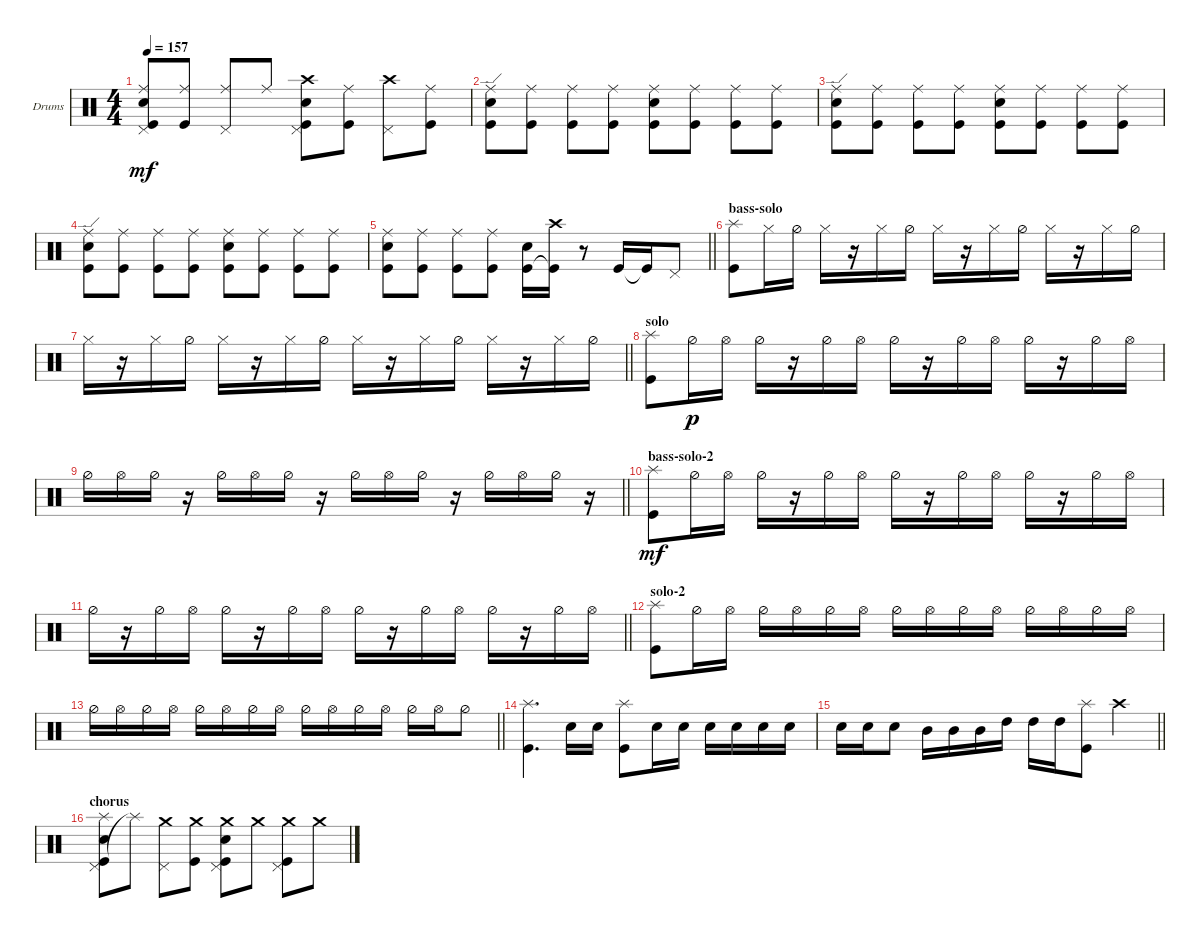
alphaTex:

\bracketExtendMode groupsimilarinstruments
\firstSystemTrackNameOrientation horizontal
\otherSystemsTrackNameOrientation horizontal
\track ("Drumkit" "Drums") {instrument percussion}
\staff {score}
\articulation defaults
\ts (4 4)
\tempo 157
\clef neutral
\scale
0.333333
\ks c
("Kick (hit)" "Ride (middle)" "Snare (hit) 2" "Pedal Hi-Hat (hit)").8{dy mf} ("Kick (hit)" "Ride (middle)").8 ("Ride (middle)" "Pedal Hi-Hat (hit)").8 "Ride (middle)".8 ("Kick (hit)" "Snare (hit) 2" "Pedal Hi-Hat (hit)" "Crash high (hit)").8 ("Kick (hit)" "Ride (middle)").8 ("Pedal Hi-Hat (hit)" "Crash high (hit)").8 ("Kick (hit)" "Ride (middle)").8 |
\scale
0.333333 ("Kick (hit)" "Ride (edge)" "Snare (hit) 2").8 ("Kick (hit)" "Ride (middle)").8 ("Kick (hit)" "Ride (middle)").8 ("Kick (hit)" "Ride (middle)").8 ("Kick (hit)" "Ride (middle)" "Snare (hit) 2").8 ("Kick (hit)" "Ride (middle)").8 ("Kick (hit)" "Ride (middle)").8 ("Kick (hit)" "Ride (middle)").8 |
\scale
0.333333 ("Kick (hit)" "Ride (edge)" "Snare (hit) 2").8 ("Kick (hit)" "Ride (middle)").8 ("Kick (hit)" "Ride (middle)").8 ("Kick (hit)" "Ride (middle)").8 ("Kick (hit)" "Ride (middle)" "Snare (hit) 2").8 ("Kick (hit)" "Ride (middle)").8 ("Kick (hit)" "Ride (middle)").8 ("Kick (hit)" "Ride (middle)").8 |
\scale
0.333333 ("Kick (hit)" "Ride (edge)" "Snare (hit) 2").8 ("Kick (hit)" "Ride (middle)").8 ("Kick (hit)" "Ride (middle)").8 ("Kick (hit)" "Ride (middle)").8 ("Kick (hit)" "Ride (middle)" "Snare (hit) 2").8 ("Kick (hit)" "Ride (middle)").8 ("Kick (hit)" "Ride (middle)").8 ("Kick (hit)" "Ride (middle)").8 |
\scale
0.333333
\barLineRight lightlight
("Kick (hit)" "Ride (middle)" "Snare (hit) 2").8 ("Kick (hit)" "Ride (middle)").8 ("Kick (hit)" "Ride (middle)").8 ("Kick (hit)" "Ride (middle)").8 ("Kick (hit)" "Snare (hit) 2").16 ("Kick (hit)"{t} "Crash high (hit)").16 r.8 "Kick (hit)".16 "Kick (hit)"{t}.16 "Pedal Hi-Hat (hit)".8 |
\section ("" "bass-solo")
\scale
0.333333 ("Splash (hit)" "Kick (hit)").8 "Hi-Hat (closed)".16 "Hi-Hat (half)".16 "Hi-Hat (closed)".16 r.16 "Hi-Hat (closed)".16 "Hi-Hat (half)".16 "Hi-Hat (closed)".16 r.16 "Hi-Hat (closed)".16 "Hi-Hat (half)".16 "Hi-Hat (closed)".16 r.16 "Hi-Hat (closed)".16 "Hi-Hat (half)".16 |
\scale
0.333333
\barLineRight lightlight "Hi-Hat (closed)".16
r.16 "Hi-Hat (closed)".16 "Hi-Hat (half)".16 "Hi-Hat (closed)".16 r.16 "Hi-Hat (closed)".16 "Hi-Hat (half)".16 "Hi-Hat (closed)".16 r.16 "Hi-Hat (closed)".16 "Hi-Hat (half)".16 "Hi-Hat (closed)".16 r.16 "Hi-Hat (closed)".16 "Hi-Hat (half)".16 |
\section ("" "solo")
\scale
0.333333 ("Splash (hit)" "Kick (hit)").8 "Hi-Hat (half)".16{dy p} "Hi-Hat (open)".16 "Hi-Hat (half)".16 r.16 "Hi-Hat (half)".16 "Hi-Hat (open)".16 "Hi-Hat (half)".16 r.16 "Hi-Hat (half)".16 "Hi-Hat (open)".16 "Hi-Hat (half)".16 r.16 "Hi-Hat (half)".16 "Hi-Hat (open)".16 |
\scale
0.333333
\barLineRight lightlight "Hi-Hat (half)".16 "Hi-Hat (open)".16 "Hi-Hat (half)".16
r.16 "Hi-Hat (half)".16 "Hi-Hat (open)".16 "Hi-Hat (half)".16 r.16 "Hi-Hat (half)".16 "Hi-Hat (open)".16 "Hi-Hat (half)".16 r.16 "Hi-Hat (half)".16 "Hi-Hat (open)".16 "Hi-Hat (half)".16 r.16 |
\section ("" "bass-solo-2")
\scale
0.333333 ("Splash (hit)" "Kick (hit)").8{dy mf} "Hi-Hat (half)".16 "Hi-Hat (open)".16 "Hi-Hat (half)".16 r.16 "Hi-Hat (half)".16 "Hi-Hat (open)".16 "Hi-Hat (half)".16 r.16 "Hi-Hat (half)".16 "Hi-Hat (open)".16 "Hi-Hat (half)".16 r.16 "Hi-Hat (half)".16 "Hi-Hat (open)".16 |
\scale
0.333333
\barLineRight lightlight "Hi-Hat (half)".16
r.16 "Hi-Hat (half)".16 "Hi-Hat (open)".16 "Hi-Hat (half)".16 r.16 "Hi-Hat (half)".16 "Hi-Hat (open)".16 "Hi-Hat (half)".16 r.16 "Hi-Hat (half)".16 "Hi-Hat (open)".16 "Hi-Hat (half)".16 r.16 "Hi-Hat (half)".16 "Hi-Hat (open)".16 |
\section ("" "solo-2")
\scale
0.333333 ("Splash (hit)" "Kick (hit)").8 "Hi-Hat (half)".16 "Hi-Hat (open)".16 "Hi-Hat (half)".16 "Hi-Hat (open)".16 "Hi-Hat (half)".16 "Hi-Hat (open)".16 "Hi-Hat (half)".16 "Hi-Hat (open)".16 "Hi-Hat (half)".16 "Hi-Hat (open)".16 "Hi-Hat (half)".16 "Hi-Hat (open)".16 "Hi-Hat (half)".16 "Hi-Hat (open)".16 |
\scale
0.333333
\barLineRight lightlight "Hi-Hat (half)".16 "Hi-Hat (open)".16 "Hi-Hat (half)".16 "Hi-Hat (open)".16 "Hi-Hat (half)".16 "Hi-Hat (open)".16 "Hi-Hat (half)".16 "Hi-Hat (open)".16 "Hi-Hat (half)".16 "Hi-Hat (open)".16 "Hi-Hat (half)".16 "Hi-Hat (open)".16 "Hi-Hat (half)".16 "Hi-Hat (open)".16 "Hi-Hat (half)".8
|
\scale
0.333333 ("Splash (hit)" "Kick (hit)").4{d} "Snare (hit) 2".16 "Snare (hit) 2".16 ("Splash (hit)" "Kick (hit)").8 "Snare (hit) 2".16 "Snare (hit) 2".16 "Snare (hit) 2".16 "Snare (hit) 2".16 "Snare (hit) 2".16 "Snare (hit) 2".16 |
\scale
0.333333
\barLineRight lightlight "Snare (hit) 2".16 "Snare (hit) 2".16 "Snare (hit) 2".8 "Mid Tom (hit)".16 "Mid Tom (hit)".16 "Mid Tom (hit)".16 "High Tom (hit)".16 "High Tom (hit)".16 "High Tom (hit)".16
("Splash (hit)" "Kick (hit)").8 "Crash high (hit)".4 |
\section ("" "chorus")
\scale
0.333333 ("Kick (hit)" "Snare (hit) 2" "Pedal Hi-Hat (hit)" "Splash (hit)").8 "Splash (hit)"{t}.8 ("Pedal Hi-Hat (hit)" "Crash medium (hit)").8 ("Kick (hit)" "Crash medium (hit)").8 ("Kick (hit)" "Snare (hit) 2" "Pedal Hi-Hat (hit)" "Crash medium (hit)").8 "Crash medium (hit)".8 ("Pedal Hi-Hat (hit)" "Kick (hit)" "Crash medium (hit)").8 "Crash medium (hit)".8
